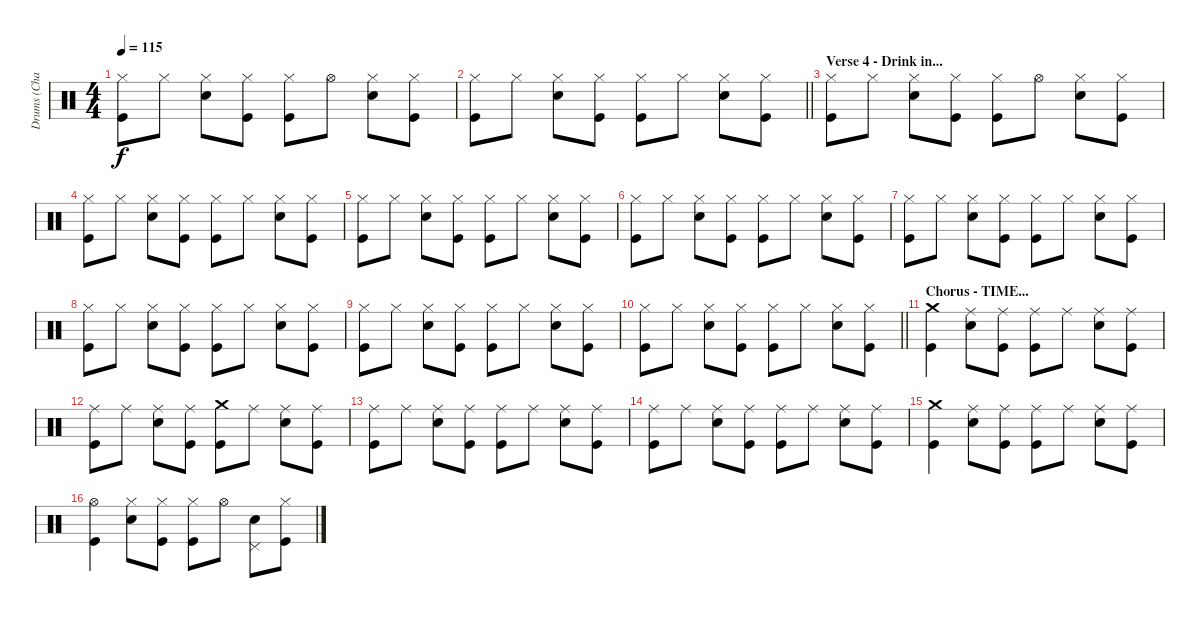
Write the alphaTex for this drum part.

\track ("Drums (Charlie)" "Drums (Cha") {instrument percussion}
\staff {score}
\articulation defaults
\ts (4 4)
\tempo 115
\clef neutral
\ks c
("Hi-Hat (closed)" "Kick (hit)").8{dy f} "Hi-Hat (closed)".8 ("Hi-Hat (closed)" "Electric Snare (hit)").8 ("Hi-Hat (closed)" "Kick (hit)").8 ("Hi-Hat (closed)" "Kick (hit)").8 "Hi-Hat (open)".8 ("Hi-Hat (closed)" "Electric Snare (hit)").8 ("Hi-Hat (closed)" "Kick (hit)").8 |
\barLineRight lightlight
("Hi-Hat (closed)" "Kick (hit)").8 "Hi-Hat (closed)".8 ("Hi-Hat (closed)" "Electric Snare (hit)").8 ("Hi-Hat (closed)" "Kick (hit)").8 ("Hi-Hat (closed)" "Kick (hit)").8 "Hi-Hat (closed)".8 ("Hi-Hat (closed)" "Electric Snare (hit)").8 ("Hi-Hat (closed)" "Kick (hit)").8 |
\section ("" "Verse 4 - Drink in...")
("Hi-Hat (closed)" "Kick (hit)").8 "Hi-Hat (closed)".8 ("Hi-Hat (closed)" "Electric Snare (hit)").8 ("Hi-Hat (closed)" "Kick (hit)").8 ("Hi-Hat (closed)" "Kick (hit)").8 "Hi-Hat (open)".8 ("Hi-Hat (closed)" "Electric Snare (hit)").8 ("Hi-Hat (closed)" "Kick (hit)").8 |
("Hi-Hat (closed)" "Kick (hit)").8 "Hi-Hat (closed)".8 ("Hi-Hat (closed)" "Electric Snare (hit)").8 ("Hi-Hat (closed)" "Kick (hit)").8 ("Hi-Hat (closed)" "Kick (hit)").8 "Hi-Hat (closed)".8 ("Hi-Hat (closed)" "Electric Snare (hit)").8 ("Hi-Hat (closed)" "Kick (hit)").8 |
("Hi-Hat (closed)" "Kick (hit)").8 "Hi-Hat (closed)".8 ("Hi-Hat (closed)" "Electric Snare (hit)").8 ("Hi-Hat (closed)" "Kick (hit)").8 ("Hi-Hat (closed)" "Kick (hit)").8 "Hi-Hat (closed)".8 ("Hi-Hat (closed)" "Electric Snare (hit)").8 ("Hi-Hat (closed)" "Kick (hit)").8 |
("Hi-Hat (closed)" "Kick (hit)").8 "Hi-Hat (closed)".8 ("Hi-Hat (closed)" "Electric Snare (hit)").8 ("Hi-Hat (closed)" "Kick (hit)").8 ("Hi-Hat (closed)" "Kick (hit)").8 "Hi-Hat (closed)".8 ("Hi-Hat (closed)" "Electric Snare (hit)").8 ("Hi-Hat (closed)" "Kick (hit)").8 |
("Hi-Hat (closed)" "Kick (hit)").8 "Hi-Hat (closed)".8 ("Hi-Hat (closed)" "Electric Snare (hit)").8 ("Hi-Hat (closed)" "Kick (hit)").8 ("Hi-Hat (closed)" "Kick (hit)").8 "Hi-Hat (closed)".8 ("Hi-Hat (closed)" "Electric Snare (hit)").8 ("Hi-Hat (closed)" "Kick (hit)").8 |
("Hi-Hat (closed)" "Kick (hit)").8 "Hi-Hat (closed)".8 ("Hi-Hat (closed)" "Electric Snare (hit)").8 ("Hi-Hat (closed)" "Kick (hit)").8 ("Hi-Hat (closed)" "Kick (hit)").8 "Hi-Hat (closed)".8 ("Hi-Hat (closed)" "Electric Snare (hit)").8 ("Hi-Hat (closed)" "Kick (hit)").8 |
("Hi-Hat (closed)" "Kick (hit)").8 "Hi-Hat (closed)".8 ("Hi-Hat (closed)" "Electric Snare (hit)").8 ("Hi-Hat (closed)" "Kick (hit)").8 ("Hi-Hat (closed)" "Kick (hit)").8 "Hi-Hat (closed)".8 ("Hi-Hat (closed)" "Electric Snare (hit)").8 ("Hi-Hat (closed)" "Kick (hit)").8 |
\barLineRight lightlight
("Hi-Hat (closed)" "Kick (hit)").8 "Hi-Hat (closed)".8 ("Hi-Hat (closed)" "Electric Snare (hit)").8 ("Hi-Hat (closed)" "Kick (hit)").8 ("Hi-Hat (closed)" "Kick (hit)").8 "Hi-Hat (closed)".8 ("Hi-Hat (closed)" "Electric Snare (hit)").8 ("Hi-Hat (closed)" "Kick (hit)").8 |
\section ("" "Chorus - TIME...")
("Crash medium (hit)" "Kick (hit)").4 ("Ride (middle)" "Electric Snare (hit)").8 ("Ride (middle)" "Kick (hit)").8 ("Ride (middle)" "Kick (hit)").8 "Ride (middle)".8 ("Ride (middle)" "Electric Snare (hit)").8 ("Ride (middle)" "Kick (hit)").8 |
("Ride (middle)" "Kick (hit)").8 "Ride (middle)".8 ("Ride (middle)" "Electric Snare (hit)").8 ("Ride (middle)" "Kick (hit)").8 ("Crash medium (hit)" "Kick (hit)").8 "Ride (middle)".8 ("Ride (middle)" "Electric Snare (hit)").8 ("Ride (middle)" "Kick (hit)").8 |
("Ride (middle)" "Kick (hit)").8 "Ride (middle)".8 ("Ride (middle)" "Electric Snare (hit)").8 ("Ride (middle)" "Kick (hit)").8 ("Ride (middle)" "Kick (hit)").8 "Ride (middle)".8 ("Ride (middle)" "Electric Snare (hit)").8 ("Ride (middle)" "Kick (hit)").8 |
("Ride (middle)" "Kick (hit)").8 "Ride (middle)".8 ("Ride (middle)" "Electric Snare (hit)").8 ("Ride (middle)" "Kick (hit)").8 ("Ride (middle)" "Kick (hit)").8 "Ride (middle)".8 ("Ride (middle)" "Electric Snare (hit)").8 ("Ride (middle)" "Kick (hit)").8 |
("Crash medium (hit)" "Kick (hit)").4 ("Ride (middle)" "Electric Snare (hit)").8 ("Ride (middle)" "Kick (hit)").8 ("Ride (middle)" "Kick (hit)").8 "Ride (middle)".8 ("Ride (middle)" "Electric Snare (hit)").8 ("Ride (middle)" "Kick (hit)").8 |
("Hi-Hat (open)" "Kick (hit)").4 ("Hi-Hat (closed)" "Electric Snare (hit)").8 ("Hi-Hat (closed)" "Kick (hit)").8 ("Hi-Hat (closed)" "Kick (hit)").8 "Hi-Hat (open)".8 ("Pedal Hi-Hat (hit)" "Electric Snare (hit)").8 ("Hi-Hat (closed)" "Kick (hit)").8
